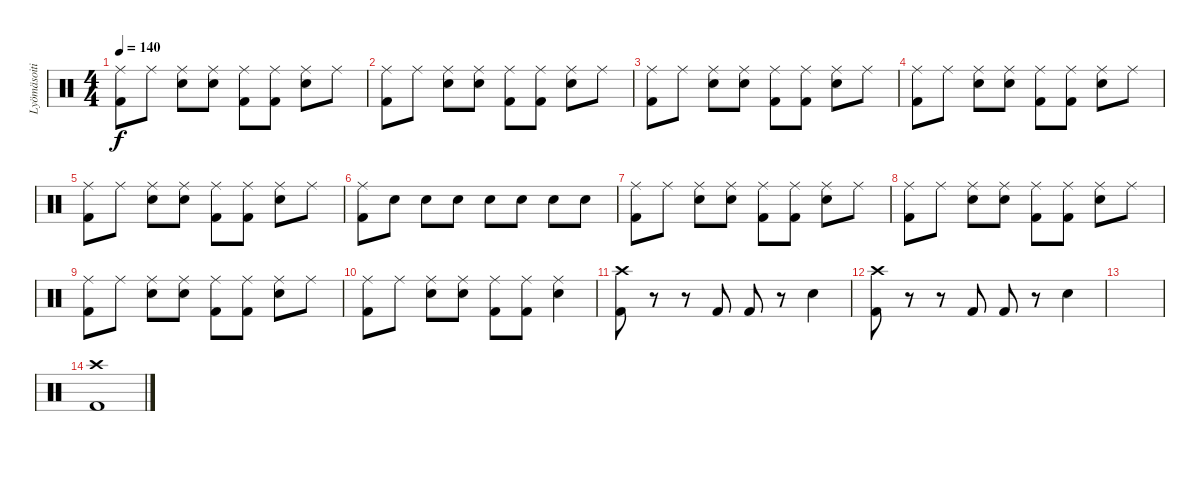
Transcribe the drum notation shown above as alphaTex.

\track ("Lyömäsoitin" "Lyömäsoiti") {instrument percussion}
\staff {score}
\articulation defaults
\ts (4 4)
\tempo 140
\clef neutral
\ks c
("Ride (middle)" "Kick (hit) 2").8{dy f} "Ride (middle)".8 ("Ride (middle)" "Electric Snare (hit)").8 ("Ride (middle)" "Electric Snare (hit)").8 ("Ride (middle)" "Kick (hit) 2").8 ("Ride (middle)" "Kick (hit) 2").8 ("Ride (middle)" "Electric Snare (hit)").8 "Ride (middle)".8 |
("Ride (middle)" "Kick (hit) 2").8 "Ride (middle)".8 ("Ride (middle)" "Electric Snare (hit)").8 ("Ride (middle)" "Electric Snare (hit)").8 ("Ride (middle)" "Kick (hit) 2").8 ("Ride (middle)" "Kick (hit) 2").8 ("Ride (middle)" "Electric Snare (hit)").8 "Ride (middle)".8 |
("Ride (middle)" "Kick (hit) 2").8 "Ride (middle)".8 ("Ride (middle)" "Electric Snare (hit)").8 ("Ride (middle)" "Electric Snare (hit)").8 ("Ride (middle)" "Kick (hit) 2").8 ("Ride (middle)" "Kick (hit) 2").8 ("Ride (middle)" "Electric Snare (hit)").8 "Ride (middle)".8 |
("Ride (middle)" "Kick (hit) 2").8 "Ride (middle)".8 ("Ride (middle)" "Electric Snare (hit)").8 ("Ride (middle)" "Electric Snare (hit)").8 ("Ride (middle)" "Kick (hit) 2").8 ("Ride (middle)" "Kick (hit) 2").8 ("Ride (middle)" "Electric Snare (hit)").8 "Ride (middle)".8 |
("Ride (middle)" "Kick (hit) 2").8 "Ride (middle)".8 ("Ride (middle)" "Electric Snare (hit)").8 ("Ride (middle)" "Electric Snare (hit)").8 ("Ride (middle)" "Kick (hit) 2").8 ("Ride (middle)" "Kick (hit) 2").8 ("Ride (middle)" "Electric Snare (hit)").8 "Ride (middle)".8 |
("Ride (middle)" "Kick (hit) 2").8 "Electric Snare (hit)".8 "Electric Snare (hit)".8 "Electric Snare (hit)".8 "Electric Snare (hit)".8 "Electric Snare (hit)".8 "Electric Snare (hit)".8 "Electric Snare (hit)".8 |
("Ride (middle)" "Kick (hit) 2").8 "Ride (middle)".8 ("Ride (middle)" "Electric Snare (hit)").8 ("Ride (middle)" "Electric Snare (hit)").8 ("Ride (middle)" "Kick (hit) 2").8 ("Ride (middle)" "Kick (hit) 2").8 ("Ride (middle)" "Electric Snare (hit)").8 "Ride (middle)".8 |
("Ride (middle)" "Kick (hit) 2").8 "Ride (middle)".8 ("Ride (middle)" "Electric Snare (hit)").8 ("Ride (middle)" "Electric Snare (hit)").8 ("Ride (middle)" "Kick (hit) 2").8 ("Ride (middle)" "Kick (hit) 2").8 ("Ride (middle)" "Electric Snare (hit)").8 "Ride (middle)".8 |
("Ride (middle)" "Kick (hit) 2").8 "Ride (middle)".8 ("Ride (middle)" "Electric Snare (hit)").8 ("Ride (middle)" "Electric Snare (hit)").8 ("Ride (middle)" "Kick (hit) 2").8 ("Ride (middle)" "Kick (hit) 2").8 ("Ride (middle)" "Electric Snare (hit)").8 "Ride (middle)".8 |
("Ride (middle)" "Kick (hit) 2").8 "Ride (middle)".8 ("Ride (middle)" "Electric Snare (hit)").8 ("Ride (middle)" "Electric Snare (hit)").8 ("Ride (middle)" "Kick (hit) 2").8 ("Ride (middle)" "Kick (hit) 2").8 ("Ride (middle)" "Electric Snare (hit)").4 |
("Crash high (hit)" "Kick (hit) 2").8 r.8 r.8 "Kick (hit) 2".8 "Kick (hit) 2".8 r.8 "Electric Snare (hit)".4 |
("Crash high (hit)" "Kick (hit) 2").8 r.8 r.8 "Kick (hit) 2".8 "Kick (hit) 2".8 r.8 "Electric Snare (hit)".4 |
|
("Crash high (hit)" "Kick (hit) 2").1
